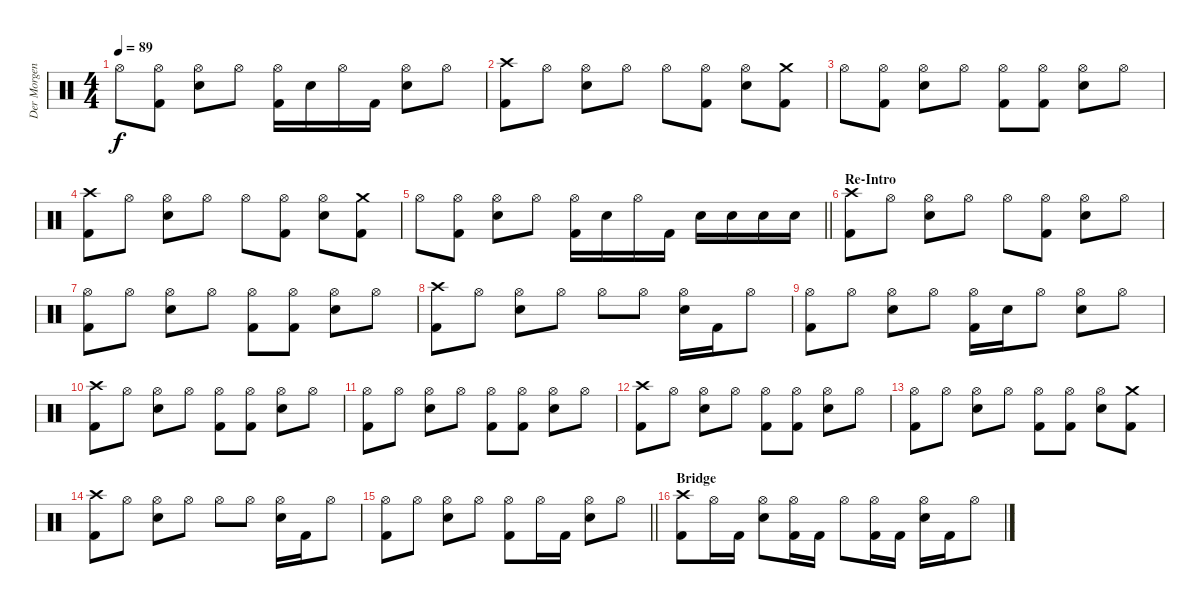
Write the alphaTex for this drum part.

\track ("Der Morgenstern" "Der Morgen") {instrument percussion}
\staff {score}
\articulation defaults
\ts (4 4)
\tempo 89
\clef neutral
\ks c "Hi-Hat (open)".8{dy f}
("Hi-Hat (open)" "Kick (hit) 2").8 ("Hi-Hat (open)" "Electric Snare (hit)").8 "Hi-Hat (open)".8 ("Hi-Hat (open)" "Kick (hit) 2").16 "Electric Snare (hit)".16 "Hi-Hat (open)".16 "Kick (hit) 2".16 ("Hi-Hat (open)" "Electric Snare (hit)").8 "Hi-Hat (open)".8 |
("Crash high (hit)" "Kick (hit) 2").8 "Hi-Hat (open)".8 ("Hi-Hat (open)" "Electric Snare (hit)").8 "Hi-Hat (open)".8 "Hi-Hat (open)".8 ("Hi-Hat (open)" "Kick (hit) 2").8 ("Hi-Hat (open)" "Electric Snare (hit)").8 ("Crash medium (hit)" "Kick (hit) 2").8 |
"Hi-Hat (open)".8 ("Hi-Hat (open)" "Kick (hit) 2").8 ("Hi-Hat (open)" "Electric Snare (hit)").8 "Hi-Hat (open)".8 ("Hi-Hat (open)" "Kick (hit) 2").8 ("Hi-Hat (open)" "Kick (hit) 2").8 ("Hi-Hat (open)" "Electric Snare (hit)").8 "Hi-Hat (open)".8 |
("Crash high (hit)" "Kick (hit) 2").8 "Hi-Hat (open)".8 ("Hi-Hat (open)" "Electric Snare (hit)").8 "Hi-Hat (open)".8 "Hi-Hat (open)".8 ("Hi-Hat (open)" "Kick (hit) 2").8 ("Hi-Hat (open)" "Electric Snare (hit)").8 ("Crash medium (hit)" "Kick (hit) 2").8 |
\barLineRight lightlight "Hi-Hat (open)".8
("Hi-Hat (open)" "Kick (hit) 2").8 ("Hi-Hat (open)" "Electric Snare (hit)").8 "Hi-Hat (open)".8 ("Hi-Hat (open)" "Kick (hit) 2").16 "Electric Snare (hit)".16 "Hi-Hat (open)".16 "Kick (hit) 2".16 "Electric Snare (hit)".16 "Electric Snare (hit)".16 "Electric Snare (hit)".16 "Electric Snare (hit)".16 |
\section ("" "Re-Intro")
("Crash high (hit)" "Kick (hit) 2").8 "Hi-Hat (open)".8 ("Hi-Hat (open)" "Electric Snare (hit)").8 "Hi-Hat (open)".8 "Hi-Hat (open)".8 ("Hi-Hat (open)" "Kick (hit) 2").8 ("Hi-Hat (open)" "Electric Snare (hit)").8 "Hi-Hat (open)".8 |
("Hi-Hat (open)" "Kick (hit) 2").8 "Hi-Hat (open)".8 ("Hi-Hat (open)" "Electric Snare (hit)").8 "Hi-Hat (open)".8 ("Hi-Hat (open)" "Kick (hit) 2").8 ("Hi-Hat (open)" "Kick (hit) 2").8 ("Hi-Hat (open)" "Electric Snare (hit)").8 "Hi-Hat (open)".8 |
("Crash high (hit)" "Kick (hit) 2").8 "Hi-Hat (open)".8 ("Hi-Hat (open)" "Electric Snare (hit)").8 "Hi-Hat (open)".8 "Hi-Hat (open)".8 "Hi-Hat (open)".8 ("Hi-Hat (open)" "Electric Snare (hit)").16 "Kick (hit) 2".16 "Hi-Hat (open)".8 |
("Hi-Hat (open)" "Kick (hit) 2").8 "Hi-Hat (open)".8 ("Hi-Hat (open)" "Electric Snare (hit)").8 "Hi-Hat (open)".8 ("Hi-Hat (open)" "Kick (hit) 2").16 "Electric Snare (hit)".16 "Hi-Hat (open)".8 ("Hi-Hat (open)" "Electric Snare (hit)").8 "Hi-Hat (open)".8 |
("Crash high (hit)" "Kick (hit) 2").8 "Hi-Hat (open)".8 ("Hi-Hat (open)" "Electric Snare (hit)").8 "Hi-Hat (open)".8 ("Hi-Hat (open)" "Kick (hit) 2").8 ("Hi-Hat (open)" "Kick (hit) 2").8 ("Hi-Hat (open)" "Electric Snare (hit)").8 "Hi-Hat (open)".8 |
("Hi-Hat (open)" "Kick (hit) 2").8 "Hi-Hat (open)".8 ("Hi-Hat (open)" "Electric Snare (hit)").8 "Hi-Hat (open)".8 ("Hi-Hat (open)" "Kick (hit) 2").8 ("Hi-Hat (open)" "Kick (hit) 2").8 ("Hi-Hat (open)" "Electric Snare (hit)").8 "Hi-Hat (open)".8 |
("Crash high (hit)" "Kick (hit) 2").8 "Hi-Hat (open)".8 ("Hi-Hat (open)" "Electric Snare (hit)").8 "Hi-Hat (open)".8 ("Hi-Hat (open)" "Kick (hit) 2").8 ("Hi-Hat (open)" "Kick (hit) 2").8 ("Hi-Hat (open)" "Electric Snare (hit)").8 "Hi-Hat (open)".8 |
("Hi-Hat (open)" "Kick (hit) 2").8 "Hi-Hat (open)".8 ("Hi-Hat (open)" "Electric Snare (hit)").8 "Hi-Hat (open)".8 ("Hi-Hat (open)" "Kick (hit) 2").8 ("Hi-Hat (open)" "Kick (hit) 2").8 ("Hi-Hat (open)" "Electric Snare (hit)").8 ("Crash medium (hit)" "Kick (hit) 2").8 |
("Crash high (hit)" "Kick (hit) 2").8 "Hi-Hat (open)".8 ("Hi-Hat (open)" "Electric Snare (hit)").8 "Hi-Hat (open)".8 "Hi-Hat (open)".8 "Hi-Hat (open)".8 ("Hi-Hat (open)" "Electric Snare (hit)").16 "Kick (hit) 2".16 "Hi-Hat (open)".8 |
\barLineRight lightlight
("Hi-Hat (open)" "Kick (hit) 2").8 "Hi-Hat (open)".8 ("Hi-Hat (open)" "Electric Snare (hit)").8 "Hi-Hat (open)".8 ("Hi-Hat (open)" "Kick (hit) 2").8 "Hi-Hat (open)".16 "Kick (hit) 2".16 ("Hi-Hat (open)" "Electric Snare (hit)").8 "Hi-Hat (open)".8 |
\section ("" "Bridge")
("Crash high (hit)" "Kick (hit) 2").8 "Hi-Hat (open)".16 "Kick (hit) 2".16 ("Hi-Hat (open)" "Electric Snare (hit)").8 ("Hi-Hat (open)" "Kick (hit) 2").16 "Kick (hit) 2".16 "Hi-Hat (open)".8 ("Hi-Hat (open)" "Kick (hit) 2").16 "Kick (hit) 2".16 ("Hi-Hat (open)" "Electric Snare (hit)").16 "Kick (hit) 2".16 "Hi-Hat (open)".8
